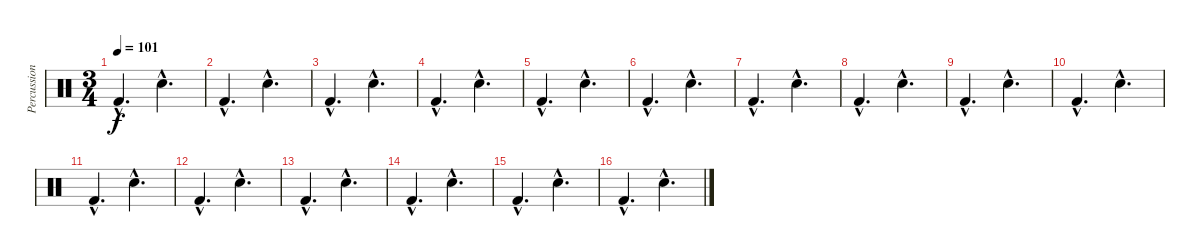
\track ("Percussions" "Percussion") {instrument percussion}
\staff {score}
\articulation defaults
\ts (3 4)
\tempo 101
\clef neutral
\ks c "Kick (hit) 2"{hac}.4{d dy f} "Electric Snare (hit)"{hac}.4{d}
|
"Kick (hit) 2"{hac}.4{d} "Electric Snare (hit)"{hac}.4{d} |
"Kick (hit) 2"{hac}.4{d} "Electric Snare (hit)"{hac}.4{d} |
"Kick (hit) 2"{hac}.4{d} "Electric Snare (hit)"{hac}.4{d} |
"Kick (hit) 2"{hac}.4{d} "Electric Snare (hit)"{hac}.4{d} |
"Kick (hit) 2"{hac}.4{d} "Electric Snare (hit)"{hac}.4{d} |
"Kick (hit) 2"{hac}.4{d} "Electric Snare (hit)"{hac}.4{d} |
"Kick (hit) 2"{hac}.4{d} "Electric Snare (hit)"{hac}.4{d} |
"Kick (hit) 2"{hac}.4{d} "Electric Snare (hit)"{hac}.4{d} |
"Kick (hit) 2"{hac}.4{d} "Electric Snare (hit)"{hac}.4{d} |
"Kick (hit) 2"{hac}.4{d} "Electric Snare (hit)"{hac}.4{d} |
"Kick (hit) 2"{hac}.4{d} "Electric Snare (hit)"{hac}.4{d} |
"Kick (hit) 2"{hac}.4{d} "Electric Snare (hit)"{hac}.4{d} |
"Kick (hit) 2"{hac}.4{d} "Electric Snare (hit)"{hac}.4{d} |
"Kick (hit) 2"{hac}.4{d} "Electric Snare (hit)"{hac}.4{d} |
"Kick (hit) 2"{hac}.4{d} "Electric Snare (hit)"{hac}.4{d}
